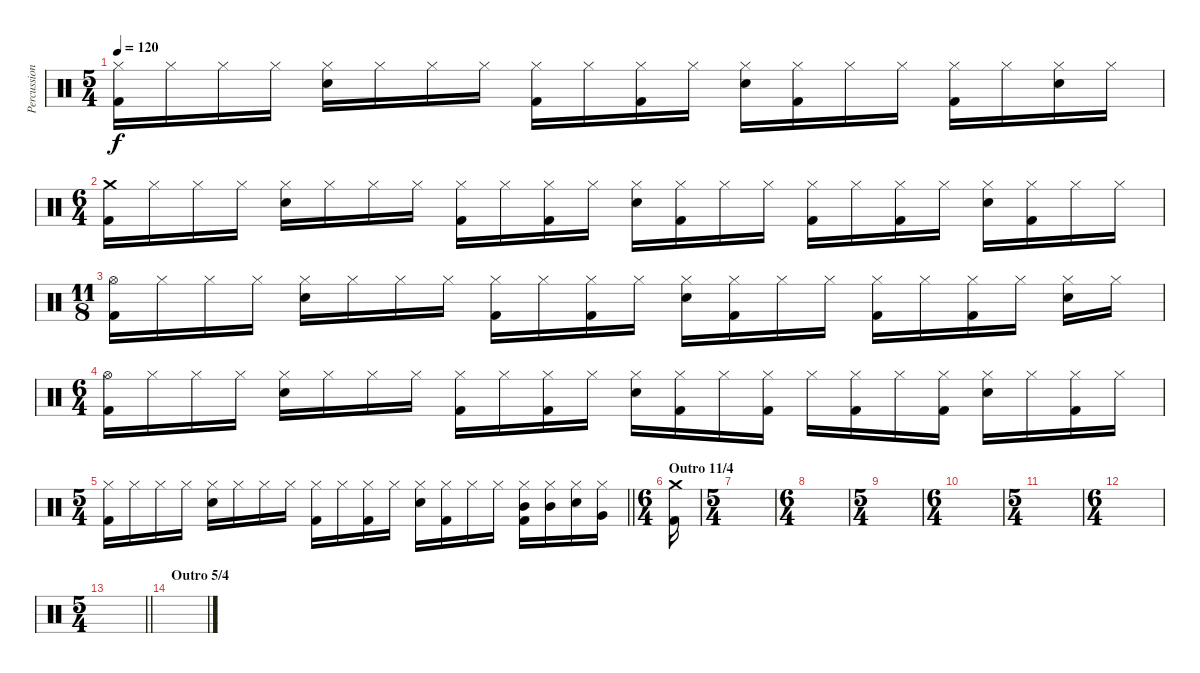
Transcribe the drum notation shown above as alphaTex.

\track ("Percussion" "Percussion") {instrument percussion}
\staff {score}
\articulation defaults
\ts (5 4)
\tempo 120
\clef neutral
\ks c
("Hi-Hat (closed)" "Kick (hit) 2").16{dy f} "Hi-Hat (closed)".16 "Hi-Hat (closed)".16 "Hi-Hat (closed)".16 ("Hi-Hat (closed)" "Electric Snare (hit)").16 "Hi-Hat (closed)".16 "Hi-Hat (closed)".16 "Hi-Hat (closed)".16 ("Hi-Hat (closed)" "Kick (hit) 2").16 "Hi-Hat (closed)".16 ("Hi-Hat (closed)" "Kick (hit) 2").16 "Hi-Hat (closed)".16 ("Hi-Hat (closed)" "Electric Snare (hit)").16 ("Hi-Hat (closed)" "Kick (hit) 2").16 "Hi-Hat (closed)".16 "Hi-Hat (closed)".16 ("Hi-Hat (closed)" "Kick (hit) 2").16 "Hi-Hat (closed)".16 ("Hi-Hat (closed)" "Electric Snare (hit)").16 "Hi-Hat (closed)".16 |
\ts (6 4)
("Crash medium (hit)" "Kick (hit) 2").16 "Hi-Hat (closed)".16 "Hi-Hat (closed)".16 "Hi-Hat (closed)".16 ("Hi-Hat (closed)" "Electric Snare (hit)").16 "Hi-Hat (closed)".16 "Hi-Hat (closed)".16 "Hi-Hat (closed)".16 ("Hi-Hat (closed)" "Kick (hit) 2").16 "Hi-Hat (closed)".16 ("Hi-Hat (closed)" "Kick (hit) 2").16 "Hi-Hat (closed)".16 ("Hi-Hat (closed)" "Electric Snare (hit)").16 ("Hi-Hat (closed)" "Kick (hit) 2").16 "Hi-Hat (closed)".16 "Hi-Hat (closed)".16 ("Hi-Hat (closed)" "Kick (hit) 2").16 "Hi-Hat (closed)".16 ("Hi-Hat (closed)" "Kick (hit) 2").16 "Hi-Hat (closed)".16 ("Hi-Hat (closed)" "Electric Snare (hit)").16 ("Hi-Hat (closed)" "Kick (hit) 2").16 "Hi-Hat (closed)".16 "Hi-Hat (closed)".16 |
\ts (11 8)
("Hi-Hat (open)" "Kick (hit) 2").16 "Hi-Hat (closed)".16 "Hi-Hat (closed)".16 "Hi-Hat (closed)".16 ("Hi-Hat (closed)" "Electric Snare (hit)").16 "Hi-Hat (closed)".16 "Hi-Hat (closed)".16 "Hi-Hat (closed)".16 ("Hi-Hat (closed)" "Kick (hit) 2").16 "Hi-Hat (closed)".16 ("Hi-Hat (closed)" "Kick (hit) 2").16 "Hi-Hat (closed)".16 ("Hi-Hat (closed)" "Electric Snare (hit)").16 ("Hi-Hat (closed)" "Kick (hit) 2").16 "Hi-Hat (closed)".16 "Hi-Hat (closed)".16 ("Hi-Hat (closed)" "Kick (hit) 2").16 "Hi-Hat (closed)".16 ("Hi-Hat (closed)" "Kick (hit) 2").16 "Hi-Hat (closed)".16 ("Hi-Hat (closed)" "Electric Snare (hit)").16 "Hi-Hat (closed)".16 |
\ts (6 4)
("Hi-Hat (open)" "Kick (hit) 2").16 "Hi-Hat (closed)".16 "Hi-Hat (closed)".16 "Hi-Hat (closed)".16 ("Hi-Hat (closed)" "Electric Snare (hit)").16 "Hi-Hat (closed)".16 "Hi-Hat (closed)".16 "Hi-Hat (closed)".16 ("Hi-Hat (closed)" "Kick (hit) 2").16 "Hi-Hat (closed)".16 ("Hi-Hat (closed)" "Kick (hit) 2").16 "Hi-Hat (closed)".16 ("Hi-Hat (closed)" "Electric Snare (hit)").16 ("Hi-Hat (closed)" "Kick (hit) 2").16 "Hi-Hat (closed)".16 ("Hi-Hat (closed)" "Kick (hit) 2").16 "Hi-Hat (closed)".16 ("Hi-Hat (closed)" "Kick (hit) 2").16 "Hi-Hat (closed)".16 ("Hi-Hat (closed)" "Kick (hit) 2").16 ("Hi-Hat (closed)" "Electric Snare (hit)").16 "Hi-Hat (closed)".16 ("Hi-Hat (closed)" "Kick (hit) 2").16 "Hi-Hat (closed)".16 |
\ts (5 4)
\barLineRight lightlight
("Hi-Hat (closed)" "Kick (hit) 2").16 "Hi-Hat (closed)".16 "Hi-Hat (closed)".16 "Hi-Hat (closed)".16 ("Hi-Hat (closed)" "Electric Snare (hit)").16 "Hi-Hat (closed)".16 "Hi-Hat (closed)".16 "Hi-Hat (closed)".16 ("Hi-Hat (closed)" "Kick (hit) 2").16 "Hi-Hat (closed)".16 ("Hi-Hat (closed)" "Kick (hit) 2").16 "Hi-Hat (closed)".16 ("Hi-Hat (closed)" "Electric Snare (hit)").16 ("Hi-Hat (closed)" "Kick (hit) 2").16 "Hi-Hat (closed)".16 "Hi-Hat (closed)".16 ("Hi-Hat (closed)" "Mid Tom (hit)" "Kick (hit) 2").16 ("Hi-Hat (closed)" "Mid Tom (hit)").16 ("Hi-Hat (closed)" "Electric Snare (hit)").16 ("Hi-Hat (closed)" "Very Low Tom (hit)").16 |
\ts (6 4)
\section ("" "Outro 11/4")
("Crash medium (hit)" "Kick (hit) 2").16 |
\ts (5 4)
|
\ts (6 4)
|
\ts (5 4)
|
\ts (6 4)
|
\ts (5 4)
|
\ts (6 4)
|
\ts (5 4)
\barLineRight lightlight
|
\section ("" "Outro 5/4")
